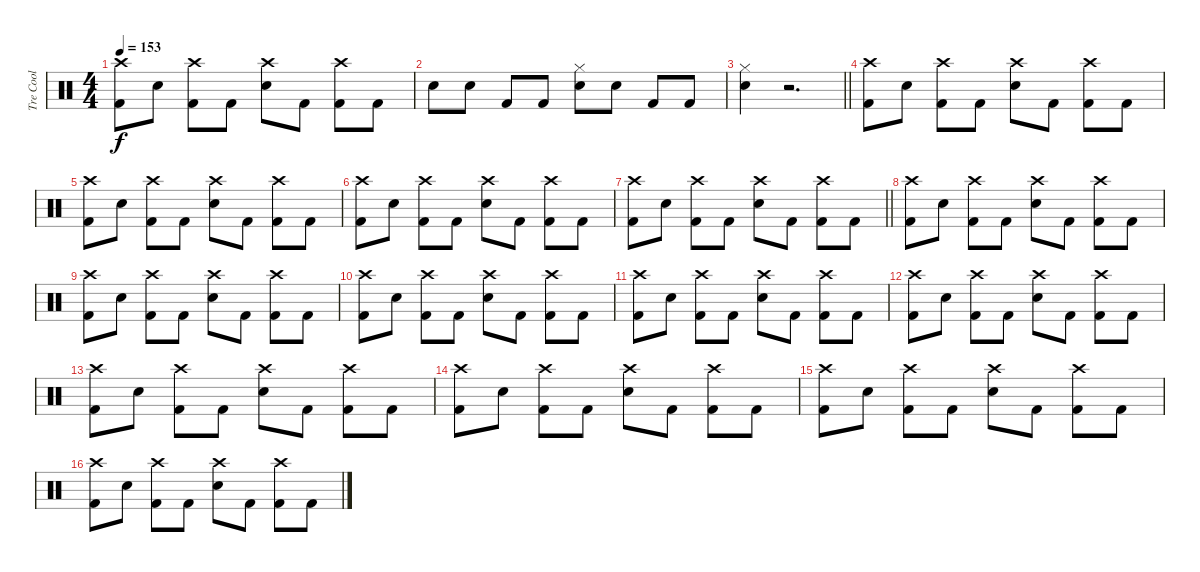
\track ("Tre Cool" "Tre Cool") {instrument percussion}
\staff {score}
\articulation defaults
\ts (4 4)
\tempo 153
\clef neutral
\ks c
("Kick (hit) 2" "Crash high (hit)").8{dy f} "Snare (hit) 2".8 ("Kick (hit) 2" "Crash high (hit)").8 "Kick (hit) 2".8 ("Snare (hit) 2" "Crash high (hit)").8 "Kick (hit) 2".8 ("Kick (hit) 2" "Crash high (hit)").8 "Kick (hit) 2".8 |
"Snare (hit) 2".8 "Snare (hit) 2".8 "Kick (hit) 2".8 "Kick (hit) 2".8 ("Snare (hit) 2" "Hi-Hat (closed)").8 "Snare (hit) 2".8 "Kick (hit) 2".8 "Kick (hit) 2".8 |
\barLineRight lightlight
("Snare (hit) 2" "Hi-Hat (closed)").4 r.2{d} |
("Kick (hit) 2" "Crash high (hit)").8 "Snare (hit) 2".8 ("Kick (hit) 2" "Crash high (hit)").8 "Kick (hit) 2".8 ("Snare (hit) 2" "Crash high (hit)").8 "Kick (hit) 2".8 ("Kick (hit) 2" "Crash high (hit)").8 "Kick (hit) 2".8 |
("Kick (hit) 2" "Crash high (hit)").8 "Snare (hit) 2".8 ("Kick (hit) 2" "Crash high (hit)").8 "Kick (hit) 2".8 ("Snare (hit) 2" "Crash high (hit)").8 "Kick (hit) 2".8 ("Kick (hit) 2" "Crash high (hit)").8 "Kick (hit) 2".8 |
("Kick (hit) 2" "Crash high (hit)").8 "Snare (hit) 2".8 ("Kick (hit) 2" "Crash high (hit)").8 "Kick (hit) 2".8 ("Snare (hit) 2" "Crash high (hit)").8 "Kick (hit) 2".8 ("Kick (hit) 2" "Crash high (hit)").8 "Kick (hit) 2".8 |
\barLineRight lightlight
("Kick (hit) 2" "Crash high (hit)").8 "Snare (hit) 2".8 ("Kick (hit) 2" "Crash high (hit)").8 "Kick (hit) 2".8 ("Snare (hit) 2" "Crash high (hit)").8 "Kick (hit) 2".8 ("Kick (hit) 2" "Crash high (hit)").8 "Kick (hit) 2".8 |
("Kick (hit) 2" "Crash high (hit)").8 "Snare (hit) 2".8 ("Kick (hit) 2" "Crash high (hit)").8 "Kick (hit) 2".8 ("Snare (hit) 2" "Crash high (hit)").8 "Kick (hit) 2".8 ("Kick (hit) 2" "Crash high (hit)").8 "Kick (hit) 2".8 |
("Kick (hit) 2" "Crash high (hit)").8 "Snare (hit) 2".8 ("Kick (hit) 2" "Crash high (hit)").8 "Kick (hit) 2".8 ("Snare (hit) 2" "Crash high (hit)").8 "Kick (hit) 2".8 ("Kick (hit) 2" "Crash high (hit)").8 "Kick (hit) 2".8 |
("Kick (hit) 2" "Crash high (hit)").8 "Snare (hit) 2".8 ("Kick (hit) 2" "Crash high (hit)").8 "Kick (hit) 2".8 ("Snare (hit) 2" "Crash high (hit)").8 "Kick (hit) 2".8 ("Kick (hit) 2" "Crash high (hit)").8 "Kick (hit) 2".8 |
("Kick (hit) 2" "Crash high (hit)").8 "Snare (hit) 2".8 ("Kick (hit) 2" "Crash high (hit)").8 "Kick (hit) 2".8 ("Snare (hit) 2" "Crash high (hit)").8 "Kick (hit) 2".8 ("Kick (hit) 2" "Crash high (hit)").8 "Kick (hit) 2".8 |
("Kick (hit) 2" "Crash high (hit)").8 "Snare (hit) 2".8 ("Kick (hit) 2" "Crash high (hit)").8 "Kick (hit) 2".8 ("Snare (hit) 2" "Crash high (hit)").8 "Kick (hit) 2".8 ("Kick (hit) 2" "Crash high (hit)").8 "Kick (hit) 2".8 |
("Kick (hit) 2" "Crash high (hit)").8 "Snare (hit) 2".8 ("Kick (hit) 2" "Crash high (hit)").8 "Kick (hit) 2".8 ("Snare (hit) 2" "Crash high (hit)").8 "Kick (hit) 2".8 ("Kick (hit) 2" "Crash high (hit)").8 "Kick (hit) 2".8 |
("Kick (hit) 2" "Crash high (hit)").8 "Snare (hit) 2".8 ("Kick (hit) 2" "Crash high (hit)").8 "Kick (hit) 2".8 ("Snare (hit) 2" "Crash high (hit)").8 "Kick (hit) 2".8 ("Kick (hit) 2" "Crash high (hit)").8 "Kick (hit) 2".8 |
("Kick (hit) 2" "Crash high (hit)").8 "Snare (hit) 2".8 ("Kick (hit) 2" "Crash high (hit)").8 "Kick (hit) 2".8 ("Snare (hit) 2" "Crash high (hit)").8 "Kick (hit) 2".8 ("Kick (hit) 2" "Crash high (hit)").8 "Kick (hit) 2".8 |
("Kick (hit) 2" "Crash high (hit)").8 "Snare (hit) 2".8 ("Kick (hit) 2" "Crash high (hit)").8 "Kick (hit) 2".8 ("Snare (hit) 2" "Crash high (hit)").8 "Kick (hit) 2".8 ("Kick (hit) 2" "Crash high (hit)").8 "Kick (hit) 2".8
